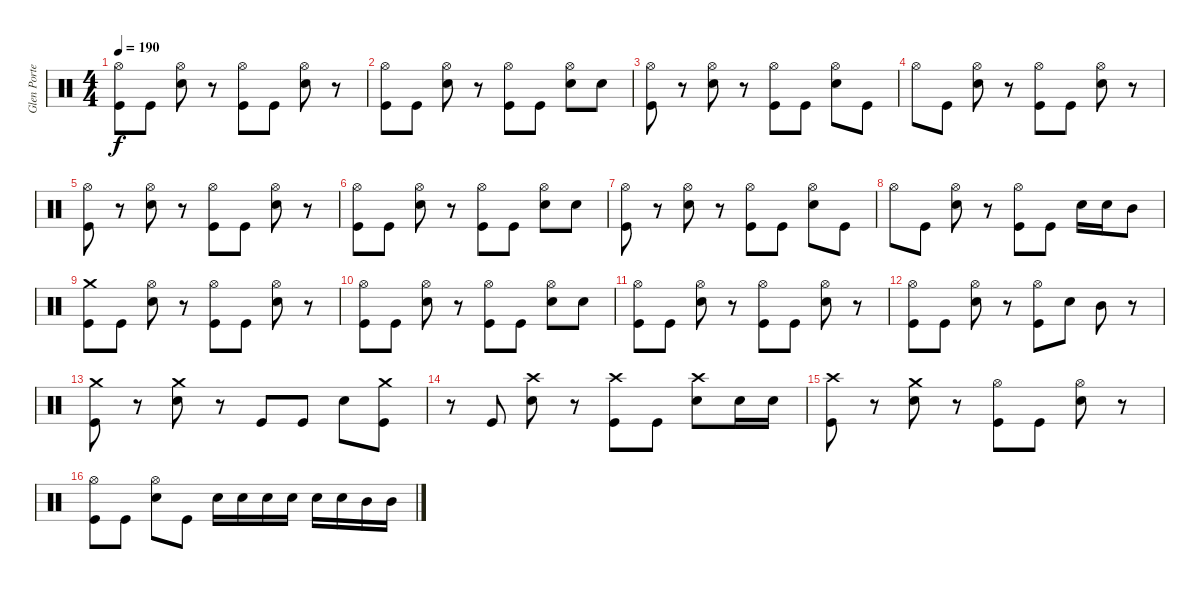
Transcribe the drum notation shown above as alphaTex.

\track ("Glen Porter" "Glen Porte") {instrument percussion}
\staff {score}
\articulation defaults
\ts (4 4)
\tempo 190
\clef neutral
\ks c
("Hi-Hat (open)" "Kick (hit)").8{dy f} "Kick (hit)".8 ("Hi-Hat (open)" "Snare (hit) 2").8 r.8 ("Hi-Hat (open)" "Kick (hit)").8 "Kick (hit)".8 ("Hi-Hat (open)" "Snare (hit) 2").8 r.8 |
("Hi-Hat (open)" "Kick (hit)").8 "Kick (hit)".8 ("Hi-Hat (open)" "Snare (hit) 2").8 r.8 ("Hi-Hat (open)" "Kick (hit)").8 "Kick (hit)".8 ("Hi-Hat (open)" "Snare (hit) 2").8 "Snare (hit) 2".8 |
("Hi-Hat (open)" "Kick (hit)").8 r.8 ("Hi-Hat (open)" "Snare (hit) 2").8 r.8 ("Hi-Hat (open)" "Kick (hit)").8 "Kick (hit)".8 ("Hi-Hat (open)" "Snare (hit) 2").8 "Kick (hit)".8 |
"Hi-Hat (open)".8 "Kick (hit)".8 ("Hi-Hat (open)" "Snare (hit) 2").8 r.8 ("Hi-Hat (open)" "Kick (hit)").8 "Kick (hit)".8 ("Hi-Hat (open)" "Snare (hit) 2").8 r.8 |
("Hi-Hat (open)" "Kick (hit)").8 r.8 ("Hi-Hat (open)" "Snare (hit) 2").8 r.8 ("Hi-Hat (open)" "Kick (hit)").8 "Kick (hit)".8 ("Hi-Hat (open)" "Snare (hit) 2").8 r.8 |
("Hi-Hat (open)" "Kick (hit)").8 "Kick (hit)".8 ("Hi-Hat (open)" "Snare (hit) 2").8 r.8 ("Hi-Hat (open)" "Kick (hit)").8 "Kick (hit)".8 ("Hi-Hat (open)" "Snare (hit) 2").8 "Snare (hit) 2".8 |
("Hi-Hat (open)" "Kick (hit)").8 r.8 ("Hi-Hat (open)" "Snare (hit) 2").8 r.8 ("Hi-Hat (open)" "Kick (hit)").8 "Kick (hit)".8 ("Hi-Hat (open)" "Snare (hit) 2").8 "Kick (hit)".8 |
"Hi-Hat (open)".8 "Kick (hit)".8 ("Hi-Hat (open)" "Snare (hit) 2").8 r.8 ("Hi-Hat (open)" "Kick (hit)").8 "Kick (hit)".8 "Snare (hit) 2".16 "Snare (hit) 2".16 "Mid Tom (hit)".8 |
("Crash medium (hit)" "Kick (hit)").8 "Kick (hit)".8 ("Hi-Hat (open)" "Snare (hit) 2").8 r.8 ("Hi-Hat (open)" "Kick (hit)").8 "Kick (hit)".8 ("Hi-Hat (open)" "Snare (hit) 2").8 r.8 |
("Hi-Hat (open)" "Kick (hit)").8 "Kick (hit)".8 ("Hi-Hat (open)" "Snare (hit) 2").8 r.8 ("Hi-Hat (open)" "Kick (hit)").8 "Kick (hit)".8 ("Hi-Hat (open)" "Snare (hit) 2").8 "Snare (hit) 2".8 |
("Hi-Hat (open)" "Kick (hit)").8 "Kick (hit)".8 ("Hi-Hat (open)" "Snare (hit) 2").8 r.8 ("Hi-Hat (open)" "Kick (hit)").8 "Kick (hit)".8 ("Hi-Hat (open)" "Snare (hit) 2").8 r.8 |
("Hi-Hat (open)" "Kick (hit)").8 "Kick (hit)".8 ("Hi-Hat (open)" "Snare (hit) 2").8 r.8 ("Hi-Hat (open)" "Kick (hit)").8 "Snare (hit) 2".8 "Mid Tom (hit)".8 r.8 |
("Crash medium (hit)" "Kick (hit)").8 r.8 ("Crash medium (hit)" "Snare (hit) 2").8 r.8 "Kick (hit)".8 "Kick (hit)".8 "Snare (hit) 2".8 ("Crash medium (hit)" "Kick (hit)").8 |
r.8 "Kick (hit)".8 ("Crash high (hit)" "Snare (hit) 2").8 r.8 ("Crash high (hit)" "Kick (hit)").8 "Kick (hit)".8 ("Crash high (hit)" "Snare (hit) 2").8 "Snare (hit) 2".16 "Snare (hit) 2".16 |
("Crash high (hit)" "Kick (hit)").8 r.8 ("Crash medium (hit)" "Snare (hit) 2").8 r.8 ("Hi-Hat (open)" "Kick (hit)").8 "Kick (hit)".8 ("Hi-Hat (open)" "Snare (hit) 2").8 r.8 |
("Hi-Hat (open)" "Kick (hit)").8 "Kick (hit)".8 ("Hi-Hat (open)" "Snare (hit) 2").8 "Kick (hit)".8 "Snare (hit) 2".16 "Snare (hit) 2".16 "Snare (hit) 2".16 "Snare (hit) 2".16 "Snare (hit) 2".16 "Snare (hit) 2".16 "Mid Tom (hit)".16 "Mid Tom (hit)".16
